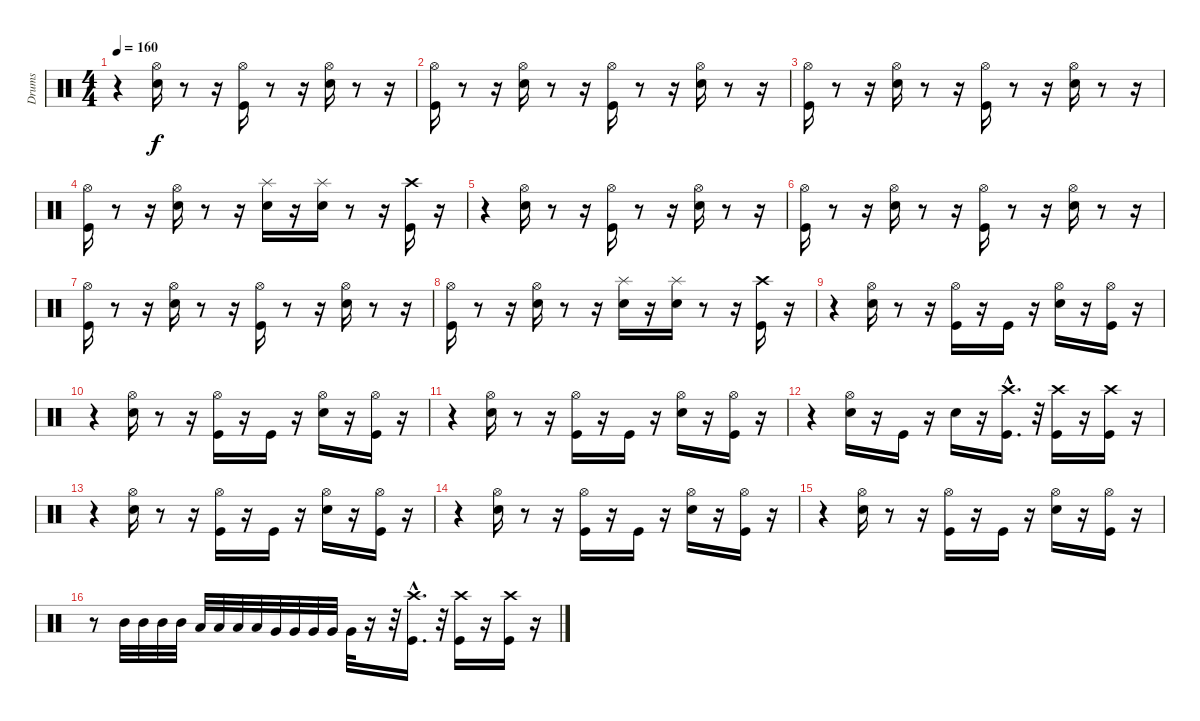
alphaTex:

\track ("Drums" "Drums") {instrument percussion}
\staff {score}
\articulation defaults
\ts (4 4)
\tempo 160
\clef neutral
\ks c
r.4{dy f} ("Hi-Hat (open)" "Snare (hit) 2").16 r.8 r.16 ("Kick (hit)" "Hi-Hat (open)").16 r.8 r.16 ("Snare (hit) 2" "Hi-Hat (open)").16 r.8 r.16 |
("Kick (hit)" "Hi-Hat (open)").16 r.8 r.16 ("Hi-Hat (open)" "Snare (hit) 2").16 r.8 r.16 ("Kick (hit)" "Hi-Hat (open)").16 r.8 r.16 ("Snare (hit) 2" "Hi-Hat (open)").16 r.8 r.16 |
("Kick (hit)" "Hi-Hat (open)").16 r.8 r.16 ("Hi-Hat (open)" "Snare (hit) 2").16 r.8 r.16 ("Kick (hit)" "Hi-Hat (open)").16 r.8 r.16 ("Snare (hit) 2" "Hi-Hat (open)").16 r.8 r.16 |
("Kick (hit)" "Hi-Hat (open)").16 r.8 r.16 ("Hi-Hat (open)" "Snare (hit) 2").16 r.8 r.16 ("Snare (hit) 2" "Splash (hit)").16 r.16 ("Snare (hit) 2" "Splash (hit)").16 r.8 r.16 ("Kick (hit)" "Crash high (hit)").16 r.16 |
r.4 ("Hi-Hat (open)" "Snare (hit) 2").16 r.8 r.16 ("Kick (hit)" "Hi-Hat (open)").16 r.8 r.16 ("Snare (hit) 2" "Hi-Hat (open)").16 r.8 r.16 |
("Kick (hit)" "Hi-Hat (open)").16 r.8 r.16 ("Hi-Hat (open)" "Snare (hit) 2").16 r.8 r.16 ("Kick (hit)" "Hi-Hat (open)").16 r.8 r.16 ("Snare (hit) 2" "Hi-Hat (open)").16 r.8 r.16 |
("Kick (hit)" "Hi-Hat (open)").16 r.8 r.16 ("Hi-Hat (open)" "Snare (hit) 2").16 r.8 r.16 ("Kick (hit)" "Hi-Hat (open)").16 r.8 r.16 ("Snare (hit) 2" "Hi-Hat (open)").16 r.8 r.16 |
("Kick (hit)" "Hi-Hat (open)").16 r.8 r.16 ("Hi-Hat (open)" "Snare (hit) 2").16 r.8 r.16 ("Snare (hit) 2" "Splash (hit)").16 r.16 ("Snare (hit) 2" "Splash (hit)").16 r.8 r.16 ("Kick (hit)" "Crash high (hit)").16 r.16 |
r.4 ("Hi-Hat (open)" "Snare (hit) 2").16 r.8 r.16 ("Hi-Hat (open)" "Kick (hit)").16 r.16 "Kick (hit)".16 r.16 ("Snare (hit) 2" "Hi-Hat (open)").16 r.16 ("Kick (hit)" "Hi-Hat (open)").16 r.16 |
r.4 ("Snare (hit) 2" "Hi-Hat (open)").16 r.8 r.16 ("Hi-Hat (open)" "Kick (hit)").16 r.16 "Kick (hit)".16 r.16 ("Snare (hit) 2" "Hi-Hat (open)").16 r.16 ("Kick (hit)" "Hi-Hat (open)").16 r.16 |
r.4 ("Snare (hit) 2" "Hi-Hat (open)").16 r.8 r.16 ("Hi-Hat (open)" "Kick (hit)").16 r.16 "Kick (hit)".16 r.16 ("Snare (hit) 2" "Hi-Hat (open)").16 r.16 ("Kick (hit)" "Hi-Hat (open)").16 r.16 |
r.4 ("Hi-Hat (open)" "Snare (hit) 2").16 r.16 "Kick (hit)".16 r.16 "Snare (hit) 2".16 r.16 ("Kick (hit)"{hac} "Crash high (hit)"{hac}).16{d} r.32 ("Crash high (hit)" "Kick (hit)").16 r.16 ("Kick (hit)" "Crash high (hit)").16 r.16 |
r.4 ("Snare (hit) 2" "Hi-Hat (open)").16 r.8 r.16 ("Hi-Hat (open)" "Kick (hit)").16 r.16 "Kick (hit)".16 r.16 ("Snare (hit) 2" "Hi-Hat (open)").16 r.16 ("Kick (hit)" "Hi-Hat (open)").16 r.16 |
r.4 ("Snare (hit) 2" "Hi-Hat (open)").16 r.8 r.16 ("Hi-Hat (open)" "Kick (hit)").16 r.16 "Kick (hit)".16 r.16 ("Snare (hit) 2" "Hi-Hat (open)").16 r.16 ("Kick (hit)" "Hi-Hat (open)").16 r.16 |
r.4 ("Snare (hit) 2" "Hi-Hat (open)").16 r.8 r.16 ("Hi-Hat (open)" "Kick (hit)").16 r.16 "Kick (hit)".16 r.16 ("Snare (hit) 2" "Hi-Hat (open)").16 r.16 ("Kick (hit)" "Hi-Hat (open)").16 r.16 |
r.8 "Mid Tom (hit)".32 "Mid Tom (hit)".32 "Mid Tom (hit)".32 "Mid Tom (hit)".32 "Low Tom (hit)".32 "Low Tom (hit)".32 "Low Tom (hit)".32 "Low Tom (hit)".32 "Very Low Tom (hit)".32 "Very Low Tom (hit)".32 "Very Low Tom (hit)".32 "Very Low Tom (hit)".32 "Very Low Tom (hit)".32 r.16 r.32 ("Crash high (hit)"{hac} "Kick (hit)"{hac}).16{d} r.32 ("Crash high (hit)" "Kick (hit)").16 r.16 ("Kick (hit)" "Crash high (hit)").16 r.16
